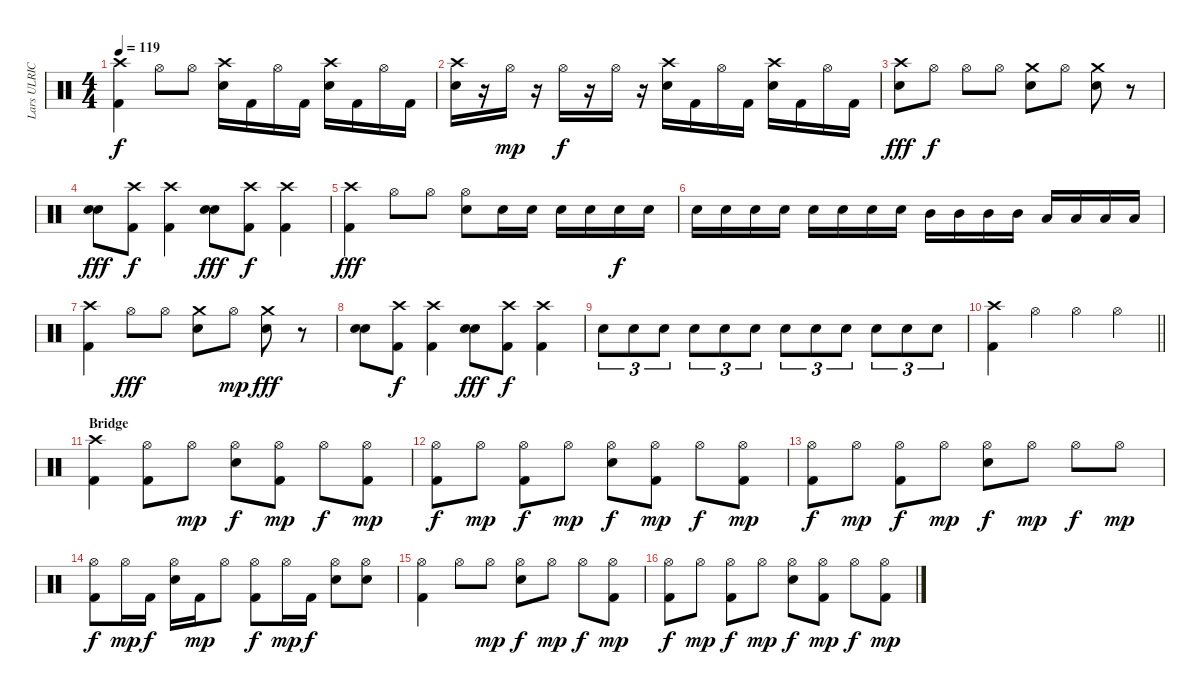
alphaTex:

\track ("Lars ULRICH" "Lars ULRIC") {instrument percussion}
\staff {score}
\articulation defaults
\ts (4 4)
\tempo 119
\clef neutral
\ks c
("Crash high (hit)" "Kick (hit) 2").4{dy f} "Hi-Hat (open)".8 "Hi-Hat (open)".8 ("Crash high (hit)" "Snare (hit) 2").16 "Kick (hit) 2".16 "Hi-Hat (open)".16 "Kick (hit) 2".16 ("Crash high (hit)" "Snare (hit) 2").16 "Kick (hit) 2".16 "Hi-Hat (open)".16 "Kick (hit) 2".16 |
("Crash high (hit)" "Snare (hit) 2").16 r.16 "Hi-Hat (open)".16{dy mp} r.16 "Hi-Hat (open)".16{dy f} r.16 "Hi-Hat (open)".16 r.16 ("Crash high (hit)" "Snare (hit) 2").16 "Kick (hit) 2".16 "Hi-Hat (open)".16 "Kick (hit) 2".16 ("Crash high (hit)" "Snare (hit) 2").16 "Kick (hit) 2".16 "Hi-Hat (open)".16 "Kick (hit) 2".16 |
("Crash high (hit)" "Snare (hit) 2").8{dy fff} "Hi-Hat (open)".8{dy f} "Hi-Hat (open)".8 "Hi-Hat (open)".8 ("Crash medium (hit)" "Snare (hit) 2").8 "Hi-Hat (open)".8 ("Crash medium (hit)" "Snare (hit) 2").8 r.8 |
("Snare (hit) 2" "Snare (hit) 2").8{dy fff} ("Crash high (hit)" "Kick (hit) 2").8{dy f} ("Crash high (hit)" "Kick (hit) 2").4 ("Snare (hit) 2" "Snare (hit) 2").8{dy fff} ("Crash high (hit)" "Kick (hit) 2").8{dy f} ("Crash high (hit)" "Kick (hit) 2").4 |
("Crash high (hit)" "Kick (hit) 2").4{dy fff} "Hi-Hat (open)".8 "Hi-Hat (open)".8 ("Hi-Hat (open)" "Snare (hit) 2").8 "Snare (hit) 2".16 "Snare (hit) 2".16 "Snare (hit) 2".16 "Snare (hit) 2".16 "Snare (hit) 2".16{dy f} "Snare (hit) 2".16 |
"Snare (hit) 2".16 "Snare (hit) 2".16 "Snare (hit) 2".16 "Snare (hit) 2".16 "Snare (hit) 2".16 "Snare (hit) 2".16 "Snare (hit) 2".16 "Snare (hit) 2".16 "Mid Tom (hit)".16 "Mid Tom (hit)".16 "Mid Tom (hit)".16 "Mid Tom (hit)".16 "Low Tom (hit)".16 "Low Tom (hit)".16 "Low Tom (hit)".16 "Low Tom (hit)".16 |
("Crash high (hit)" "Kick (hit) 2").4 "Hi-Hat (open)".8{dy fff} "Hi-Hat (open)".8 ("Crash medium (hit)" "Snare (hit) 2").8 "Hi-Hat (open)".8{dy mp} ("Crash medium (hit)" "Snare (hit) 2").8{dy fff} r.8 |
("Snare (hit) 2" "Snare (hit) 2").8 ("Crash high (hit)" "Kick (hit) 2").8{dy f} ("Crash high (hit)" "Kick (hit) 2").4 ("Snare (hit) 2" "Snare (hit) 2").8{dy fff} ("Crash high (hit)" "Kick (hit) 2").8{dy f} ("Crash high (hit)" "Kick (hit) 2").4 |
"Snare (hit) 2".8{tu (3 2)} "Snare (hit) 2".8{tu (3 2)} "Snare (hit) 2".8{tu (3 2)} "Snare (hit) 2".8{tu (3 2)} "Snare (hit) 2".8{tu (3 2)} "Snare (hit) 2".8{tu (3 2)} "Snare (hit) 2".8{tu (3 2)} "Snare (hit) 2".8{tu (3 2)} "Snare (hit) 2".8{tu (3 2)} "Snare (hit) 2".8{tu (3 2)} "Snare (hit) 2".8{tu (3 2)} "Snare (hit) 2".8{tu (3 2)} |
\barLineRight lightlight
("Crash high (hit)" "Kick (hit) 2").4 "Hi-Hat (open)".4 "Hi-Hat (open)".4 "Hi-Hat (open)".4 |
\section ("" "Bridge")
("Crash high (hit)" "Kick (hit) 2").4 ("Hi-Hat (open)" "Kick (hit) 2").8 "Hi-Hat (open)".8{dy mp} ("Hi-Hat (open)" "Snare (hit) 2").8{dy f} ("Hi-Hat (open)" "Kick (hit) 2").8{dy mp} "Hi-Hat (open)".8{dy f} ("Hi-Hat (open)" "Kick (hit) 2").8{dy mp} |
("Hi-Hat (open)" "Kick (hit) 2").8{dy f} "Hi-Hat (open)".8{dy mp} ("Hi-Hat (open)" "Kick (hit) 2").8{dy f} "Hi-Hat (open)".8{dy mp} ("Hi-Hat (open)" "Snare (hit) 2").8{dy f} ("Hi-Hat (open)" "Kick (hit) 2").8{dy mp} "Hi-Hat (open)".8{dy f} ("Hi-Hat (open)" "Kick (hit) 2").8{dy mp} |
("Hi-Hat (open)" "Kick (hit) 2").8{dy f} "Hi-Hat (open)".8{dy mp} ("Hi-Hat (open)" "Kick (hit) 2").8{dy f} "Hi-Hat (open)".8{dy mp} ("Hi-Hat (open)" "Snare (hit) 2").8{dy f} "Hi-Hat (open)".8{dy mp} "Hi-Hat (open)".8{dy f} "Hi-Hat (open)".8{dy mp} |
("Hi-Hat (open)" "Kick (hit) 2").8{dy f} "Hi-Hat (open)".16{dy mp} "Kick (hit) 2".16{dy f} ("Hi-Hat (open)" "Snare (hit) 2").16 "Kick (hit) 2".16{dy mp} "Hi-Hat (open)".8 ("Hi-Hat (open)" "Kick (hit) 2").8{dy f} "Hi-Hat (open)".16{dy mp} "Kick (hit) 2".16{dy f} ("Hi-Hat (open)" "Snare (hit) 2").8 ("Hi-Hat (open)" "Snare (hit) 2").8 |
("Hi-Hat (open)" "Kick (hit) 2").4 "Hi-Hat (open)".8 "Hi-Hat (open)".8{dy mp} ("Hi-Hat (open)" "Snare (hit) 2").8{dy f} "Hi-Hat (open)".8{dy mp} "Hi-Hat (open)".8{dy f} ("Hi-Hat (open)" "Kick (hit) 2").8{dy mp} |
("Hi-Hat (open)" "Kick (hit) 2").8{dy f} "Hi-Hat (open)".8{dy mp} ("Hi-Hat (open)" "Kick (hit) 2").8{dy f} "Hi-Hat (open)".8{dy mp} ("Hi-Hat (open)" "Snare (hit) 2").8{dy f} ("Hi-Hat (open)" "Kick (hit) 2").8{dy mp} "Hi-Hat (open)".8{dy f} ("Hi-Hat (open)" "Kick (hit) 2").8{dy mp}
